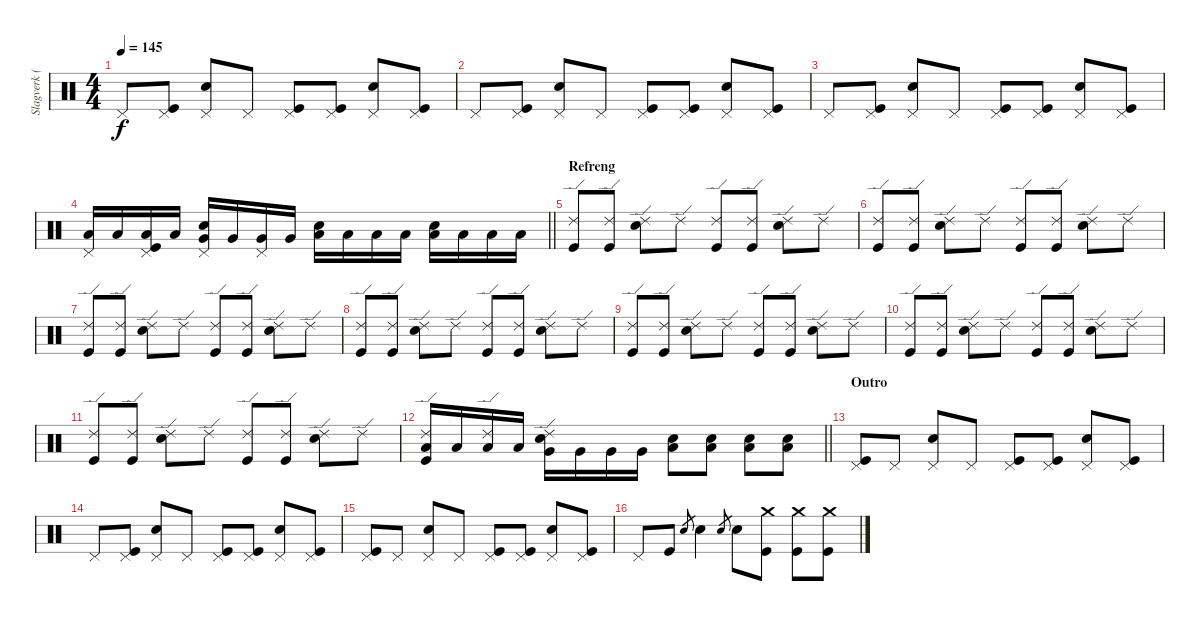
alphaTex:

\track ("Slagverk (Jan)" "Slagverk (") {instrument percussion}
\staff {score}
\articulation defaults
\ts (4 4)
\tempo 145
\clef neutral
\ks c "Pedal Hi-Hat (hit)".8{dy f}
("Pedal Hi-Hat (hit)" "Kick (hit)").8 ("Pedal Hi-Hat (hit)" "Snare (hit) 2").8 "Pedal Hi-Hat (hit)".8 ("Pedal Hi-Hat (hit)" "Kick (hit)").8 ("Pedal Hi-Hat (hit)" "Kick (hit)").8 ("Pedal Hi-Hat (hit)" "Snare (hit) 2").8 ("Pedal Hi-Hat (hit)" "Kick (hit)").8 |
"Pedal Hi-Hat (hit)".8 ("Pedal Hi-Hat (hit)" "Kick (hit)").8 ("Pedal Hi-Hat (hit)" "Snare (hit) 2").8 "Pedal Hi-Hat (hit)".8 ("Pedal Hi-Hat (hit)" "Kick (hit)").8 ("Pedal Hi-Hat (hit)" "Kick (hit)").8 ("Pedal Hi-Hat (hit)" "Snare (hit) 2").8 ("Pedal Hi-Hat (hit)" "Kick (hit)").8 |
"Pedal Hi-Hat (hit)".8 ("Pedal Hi-Hat (hit)" "Kick (hit)").8 ("Pedal Hi-Hat (hit)" "Snare (hit) 2").8 "Pedal Hi-Hat (hit)".8 ("Pedal Hi-Hat (hit)" "Kick (hit)").8 ("Pedal Hi-Hat (hit)" "Kick (hit)").8 ("Pedal Hi-Hat (hit)" "Snare (hit) 2").8 ("Pedal Hi-Hat (hit)" "Kick (hit)").8 |
\barLineRight lightlight
("Low Tom (hit)" "Pedal Hi-Hat (hit)").16 "Low Tom (hit)".16 ("Low Tom (hit)" "Pedal Hi-Hat (hit)" "Kick (hit)").16 "Low Tom (hit)".16 ("Very Low Tom (hit)" "Pedal Hi-Hat (hit)" "Snare (hit) 2").16 "Very Low Tom (hit)".16 ("Very Low Tom (hit)" "Pedal Hi-Hat (hit)").16 "Very Low Tom (hit)".16 ("Low Floor Tom (hit)" "Snare (hit) 2").16 "Low Floor Tom (hit)".16 "Low Floor Tom (hit)".16 "Low Floor Tom (hit)".16 ("Low Floor Tom (hit)" "Snare (hit) 2").16 "Low Floor Tom (hit)".16 "Low Floor Tom (hit)".16 "Low Floor Tom (hit)".16 |
\section ("" "Refreng")
("Ride (edge) 2" "Kick (hit)").8 ("Ride (edge) 2" "Kick (hit)").8 ("Ride (edge) 2" "Snare (hit) 2").8 "Ride (edge) 2".8 ("Ride (edge) 2" "Kick (hit)").8 ("Ride (edge) 2" "Kick (hit)").8 ("Ride (edge) 2" "Snare (hit) 2").8 "Ride (edge) 2".8 |
("Ride (edge) 2" "Kick (hit)").8 ("Ride (edge) 2" "Kick (hit)").8 ("Ride (edge) 2" "Snare (hit) 2").8 "Ride (edge) 2".8 ("Ride (edge) 2" "Kick (hit)").8 ("Ride (edge) 2" "Kick (hit)").8 ("Ride (edge) 2" "Snare (hit) 2").8 "Ride (edge) 2".8 |
("Ride (edge) 2" "Kick (hit)").8 ("Ride (edge) 2" "Kick (hit)").8 ("Ride (edge) 2" "Snare (hit) 2").8 "Ride (edge) 2".8 ("Ride (edge) 2" "Kick (hit)").8 ("Ride (edge) 2" "Kick (hit)").8 ("Ride (edge) 2" "Snare (hit) 2").8 "Ride (edge) 2".8 |
("Ride (edge) 2" "Kick (hit)").8 ("Ride (edge) 2" "Kick (hit)").8 ("Ride (edge) 2" "Snare (hit) 2").8 "Ride (edge) 2".8 ("Ride (edge) 2" "Kick (hit)").8 ("Ride (edge) 2" "Kick (hit)").8 ("Ride (edge) 2" "Snare (hit) 2").8 "Ride (edge) 2".8 |
("Ride (edge) 2" "Kick (hit)").8 ("Ride (edge) 2" "Kick (hit)").8 ("Ride (edge) 2" "Snare (hit) 2").8 "Ride (edge) 2".8 ("Ride (edge) 2" "Kick (hit)").8 ("Ride (edge) 2" "Kick (hit)").8 ("Ride (edge) 2" "Snare (hit) 2").8 "Ride (edge) 2".8 |
("Ride (edge) 2" "Kick (hit)").8 ("Ride (edge) 2" "Kick (hit)").8 ("Ride (edge) 2" "Snare (hit) 2").8 "Ride (edge) 2".8 ("Ride (edge) 2" "Kick (hit)").8 ("Ride (edge) 2" "Kick (hit)").8 ("Ride (edge) 2" "Snare (hit) 2").8 "Ride (edge) 2".8 |
("Ride (edge) 2" "Kick (hit)").8 ("Ride (edge) 2" "Kick (hit)").8 ("Ride (edge) 2" "Snare (hit) 2").8 "Ride (edge) 2".8 ("Ride (edge) 2" "Kick (hit)").8 ("Ride (edge) 2" "Kick (hit)").8 ("Ride (edge) 2" "Snare (hit) 2").8 "Ride (edge) 2".8 |
\barLineRight lightlight
("Low Tom (hit)" "Ride (edge) 2" "Kick (hit)").16 "Low Tom (hit)".16 ("Low Tom (hit)" "Ride (edge) 2").16 "Low Tom (hit)".16 ("Very Low Tom (hit)" "Ride (edge) 2" "Snare (hit) 2").16 "Very Low Tom (hit)".16 "Very Low Tom (hit)".16 "Very Low Tom (hit)".16 ("Low Floor Tom (hit)" "Snare (hit) 2").8 ("Low Floor Tom (hit)" "Snare (hit) 2").8 ("Low Floor Tom (hit)" "Snare (hit) 2").8 ("Low Floor Tom (hit)" "Snare (hit) 2").8 |
\section ("" "Outro")
("Pedal Hi-Hat (hit)" "Kick (hit)").8 "Pedal Hi-Hat (hit)".8 ("Pedal Hi-Hat (hit)" "Snare (hit) 2").8 "Pedal Hi-Hat (hit)".8 ("Pedal Hi-Hat (hit)" "Kick (hit)").8 ("Pedal Hi-Hat (hit)" "Kick (hit)").8 ("Pedal Hi-Hat (hit)" "Snare (hit) 2").8 ("Pedal Hi-Hat (hit)" "Kick (hit)").8 |
"Pedal Hi-Hat (hit)".8 ("Pedal Hi-Hat (hit)" "Kick (hit)").8 ("Pedal Hi-Hat (hit)" "Snare (hit) 2").8 "Pedal Hi-Hat (hit)".8 ("Pedal Hi-Hat (hit)" "Kick (hit)").8 ("Pedal Hi-Hat (hit)" "Kick (hit)").8 ("Pedal Hi-Hat (hit)" "Snare (hit) 2").8 ("Pedal Hi-Hat (hit)" "Kick (hit)").8 |
("Pedal Hi-Hat (hit)" "Kick (hit)").8 "Pedal Hi-Hat (hit)".8 ("Pedal Hi-Hat (hit)" "Snare (hit) 2").8 "Pedal Hi-Hat (hit)".8 ("Pedal Hi-Hat (hit)" "Kick (hit)").8 ("Pedal Hi-Hat (hit)" "Kick (hit)").8 ("Pedal Hi-Hat (hit)" "Snare (hit) 2").8 ("Pedal Hi-Hat (hit)" "Kick (hit)").8 |
"Pedal Hi-Hat (hit)".8 "Kick (hit)".8 "Snare (hit) 2".8{gr} "Snare (hit) 2".4 "Snare (hit) 2".8{gr} "Snare (hit) 2".8 ("Crash medium (hit)" "Kick (hit)").8 ("Crash medium (hit)" "Kick (hit)").8 ("Crash medium (hit)" "Kick (hit)").8
